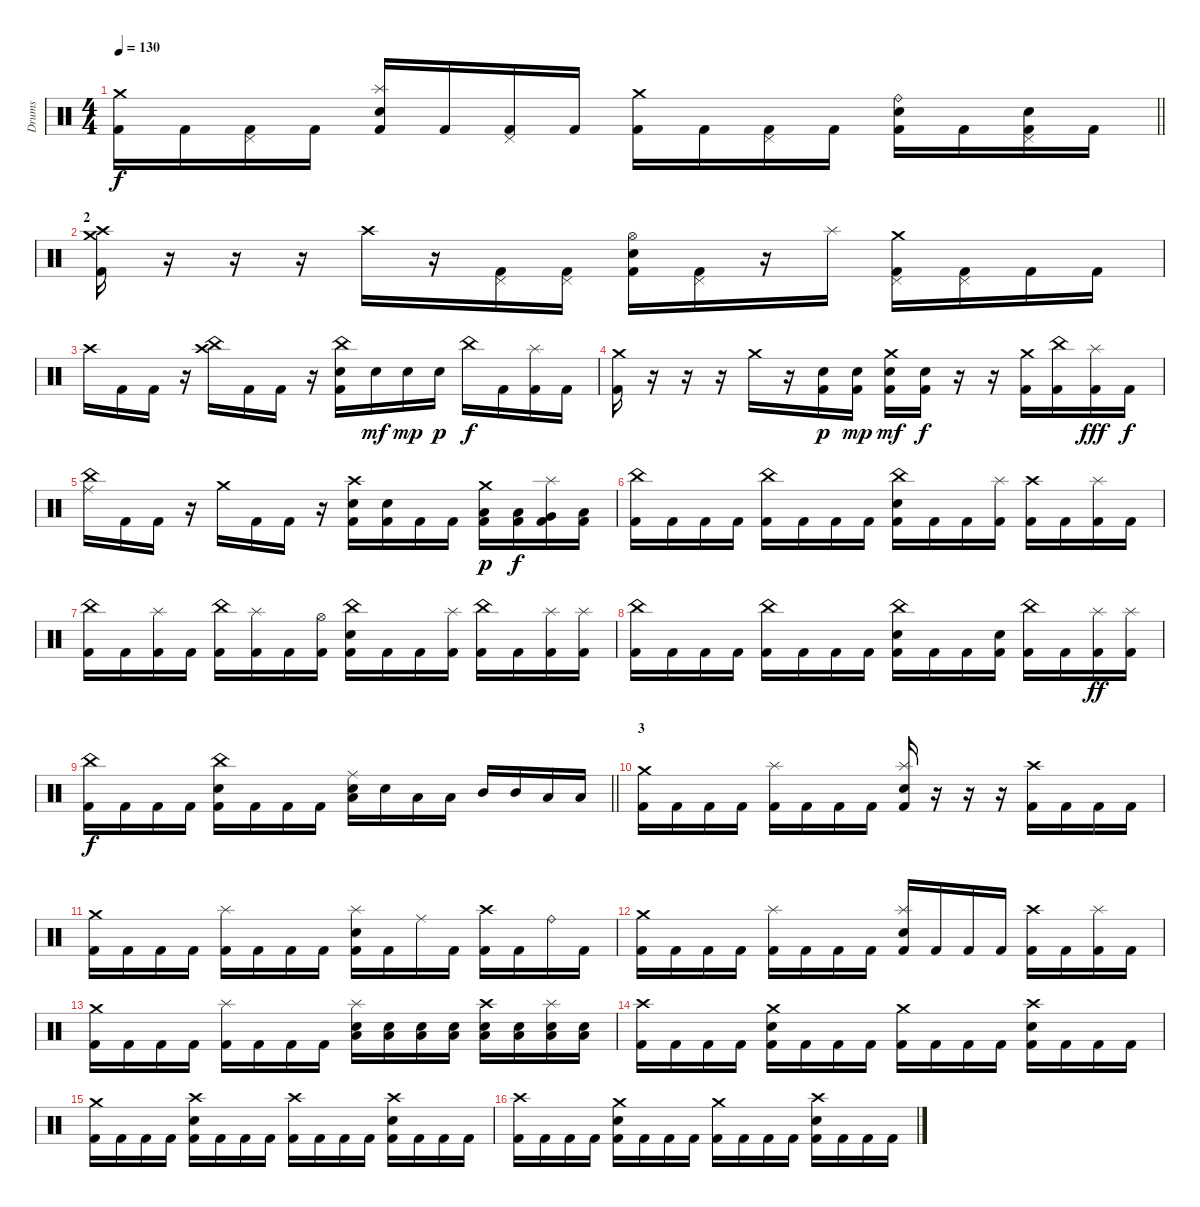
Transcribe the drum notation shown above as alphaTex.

\track ("Drums" "Drums") {instrument percussion}
\staff {score}
\articulation defaults
\ts (4 4)
\tempo 130
\clef neutral
\barLineRight lightlight
\ks c
("Crash medium (hit)" "Kick (hit) 2").16{dy f} "Kick (hit) 2".16 ("Pedal Hi-Hat (hit)" "Kick (hit) 2").16 "Kick (hit) 2".16 ("Splash (hit)" "Electric Snare (hit)" "Kick (hit) 2").16 "Kick (hit) 2".16 ("Pedal Hi-Hat (hit)" "Kick (hit) 2").16 "Kick (hit) 2".16 ("Crash medium (hit)" "Kick (hit) 2").16 "Kick (hit) 2".16 ("Pedal Hi-Hat (hit)" "Kick (hit) 2").16 "Kick (hit) 2".16 ("Ride (bell)" "Electric Snare (hit)" "Kick (hit) 2").16 "Kick (hit) 2".16 ("Pedal Hi-Hat (hit)" "Electric Snare (hit)" "Kick (hit) 2").16 "Kick (hit) 2".16 |
\section ("" "2")
("Crash medium (hit)" "Crash high (hit)" "Kick (hit) 2").16 r.16 r.16 r.16 "Crash high (hit)".16 r.16 ("Pedal Hi-Hat (hit)" "Kick (hit) 2").16 ("Pedal Hi-Hat (hit)" "Kick (hit) 2").16 ("Hi-Hat (open)" "Electric Snare (hit)" "Kick (hit) 2").16 ("Pedal Hi-Hat (hit)" "Kick (hit) 2").16 r.16 "Splash (hit)".16 ("Crash medium (hit)" "Pedal Hi-Hat (hit)" "Kick (hit) 2").16 ("Pedal Hi-Hat (hit)" "Kick (hit) 2").16 "Kick (hit) 2".16 "Kick (hit) 2".16 |
"Crash high (hit)".16 "Kick (hit) 2".16 "Kick (hit) 2".16 r.16 ("China (hit)" "Crash high (hit)").16 "Kick (hit) 2".16 "Kick (hit) 2".16 r.16 ("China (hit)" "Electric Snare (hit)" "Kick (hit) 2").16 "Electric Snare (hit)".16{dy mf} "Electric Snare (hit)".16{dy mp} "Electric Snare (hit)".16{dy p} "China (hit)".16{dy f} "Kick (hit) 2".16 ("Splash (hit)" "Kick (hit) 2").16 "Kick (hit) 2".16 |
("Crash medium (hit)" "Kick (hit) 2").16 r.16 r.16 r.16 "Crash medium (hit)".16 r.16 ("Electric Snare (hit)" "Kick (hit) 2").16{dy p} ("Electric Snare (hit)" "Kick (hit) 2").16{dy mp} ("Crash medium (hit)" "Electric Snare (hit)" "Kick (hit) 2").16{dy mf} ("Electric Snare (hit)" "Kick (hit) 2").16{dy f} r.16 r.16 ("Crash medium (hit)" "Kick (hit) 2").16 ("China (hit)" "Kick (hit) 2").16 ("Splash (hit)" "Kick (hit) 2").16{dy fff} "Kick (hit) 2".16{dy f} |
("China (hit)" "Ride (middle)").16 "Kick (hit) 2".16 "Kick (hit) 2".16 r.16 "Crash medium (hit)".16 "Kick (hit) 2".16 "Kick (hit) 2".16 r.16 ("Crash high (hit)" "Electric Snare (hit)" "Kick (hit) 2").16 ("Electric Snare (hit)" "Kick (hit) 2").16 "Kick (hit) 2".16 "Kick (hit) 2".16 ("Crash medium (hit)" "Low Tom (hit)" "Kick (hit) 2").16{dy p} ("Low Tom (hit)" "Kick (hit) 2").16{dy f} ("Splash (hit)" "Very Low Tom (hit)" "Kick (hit) 2").16 ("Low Floor Tom (hit)" "Kick (hit) 2").16 |
("China (hit)" "Kick (hit) 2").16 "Kick (hit) 2".16 "Kick (hit) 2".16 "Kick (hit) 2".16 ("China (hit)" "Kick (hit) 2").16 "Kick (hit) 2".16 "Kick (hit) 2".16 "Kick (hit) 2".16 ("China (hit)" "Snare (hit) 2" "Kick (hit) 2").16 "Kick (hit) 2".16 "Kick (hit) 2".16 ("Splash (hit)" "Kick (hit) 2").16 ("Crash high (hit)" "Kick (hit) 2").16 "Kick (hit) 2".16 ("Splash (hit)" "Kick (hit) 2").16 "Kick (hit) 2".16 |
("China (hit)" "Kick (hit) 2").16 "Kick (hit) 2".16 ("Splash (hit)" "Kick (hit) 2").16 "Kick (hit) 2".16 ("China (hit)" "Kick (hit) 2").16 ("Splash (hit)" "Kick (hit) 2").16 "Kick (hit) 2".16 ("Hi-Hat (open)" "Kick (hit) 2").16 ("China (hit)" "Electric Snare (hit)" "Kick (hit) 2").16 "Kick (hit) 2".16 "Kick (hit) 2".16 ("Splash (hit)" "Kick (hit) 2").16 ("China (hit)" "Kick (hit) 2").16 "Kick (hit) 2".16 ("Splash (hit)" "Kick (hit) 2").16 ("Splash (hit)" "Kick (hit) 2").16 |
("China (hit)" "Kick (hit) 2").16 "Kick (hit) 2".16 "Kick (hit) 2".16 "Kick (hit) 2".16 ("China (hit)" "Kick (hit) 2").16 "Kick (hit) 2".16 "Kick (hit) 2".16 "Kick (hit) 2".16 ("China (hit)" "Electric Snare (hit)" "Kick (hit) 2").16 "Kick (hit) 2".16 "Kick (hit) 2".16 ("Electric Snare (hit)" "Kick (hit) 2").16 ("China (hit)" "Kick (hit) 2").16 "Kick (hit) 2".16 ("Splash (hit)" "Kick (hit) 2").16{dy ff} ("Splash (hit)" "Kick (hit) 2").16 |
\barLineRight lightlight
("China (hit)" "Kick (hit) 2").16{dy f} "Kick (hit) 2".16 "Kick (hit) 2".16 "Kick (hit) 2".16 ("China (hit)" "Electric Snare (hit)" "Kick (hit) 2").16 "Kick (hit) 2".16 "Kick (hit) 2".16 "Kick (hit) 2".16 ("Ride (middle)" "Low Tom (hit)" "Electric Snare (hit)").16 "Electric Snare (hit)".16 "Low Tom (hit)".16 "Low Tom (hit)".16 "Mid Tom (hit)".16 "Mid Tom (hit)".16 "Low Floor Tom (hit)".16 "Low Floor Tom (hit)".16 |
\section ("" "3")
("Crash medium (hit)" "Kick (hit) 2").16 "Kick (hit) 2".16 "Kick (hit) 2".16 "Kick (hit) 2".16 ("Splash (hit)" "Kick (hit) 2").16 "Kick (hit) 2".16 "Kick (hit) 2".16 "Kick (hit) 2".16 ("Splash (hit)" "Electric Snare (hit)" "Kick (hit) 2").16 r.16 r.16 r.16 ("Crash high (hit)" "Kick (hit) 2").16 "Kick (hit) 2".16 "Kick (hit) 2".16 "Kick (hit) 2".16 |
("Crash medium (hit)" "Kick (hit) 2").16 "Kick (hit) 2".16 "Kick (hit) 2".16 "Kick (hit) 2".16 ("Splash (hit)" "Kick (hit) 2").16 "Kick (hit) 2".16 "Kick (hit) 2".16 "Kick (hit) 2".16 ("Splash (hit)" "Electric Snare (hit)" "Kick (hit) 2").16 "Kick (hit) 2".16 "Ride (middle)".16 "Kick (hit) 2".16 ("Crash high (hit)" "Kick (hit) 2").16 "Kick (hit) 2".16 "Ride (bell)".16 "Kick (hit) 2".16 |
("Crash medium (hit)" "Kick (hit) 2").16 "Kick (hit) 2".16 "Kick (hit) 2".16 "Kick (hit) 2".16 ("Splash (hit)" "Kick (hit) 2").16 "Kick (hit) 2".16 "Kick (hit) 2".16 "Kick (hit) 2".16 ("Splash (hit)" "Electric Snare (hit)" "Kick (hit) 2").16 "Kick (hit) 2".16 "Kick (hit) 2".16 "Kick (hit) 2".16 ("Crash high (hit)" "Kick (hit) 2").16 "Kick (hit) 2".16 ("Splash (hit)" "Kick (hit) 2").16 "Kick (hit) 2".16 |
("Crash medium (hit)" "Kick (hit) 2").16 "Kick (hit) 2".16 "Kick (hit) 2".16 "Kick (hit) 2".16 ("Splash (hit)" "Kick (hit) 2").16 "Kick (hit) 2".16 "Kick (hit) 2".16 "Kick (hit) 2".16 ("Splash (hit)" "Low Floor Tom (hit)" "Electric Snare (hit)").16 ("Low Floor Tom (hit)" "Electric Snare (hit)").16 ("Low Floor Tom (hit)" "Electric Snare (hit)").16 ("Low Floor Tom (hit)" "Electric Snare (hit)").16 ("Crash high (hit)" "Low Floor Tom (hit)" "Electric Snare (hit)").16 ("Low Floor Tom (hit)" "Electric Snare (hit)").16 ("Splash (hit)" "Low Floor Tom (hit)" "Electric Snare (hit)").16 ("Low Floor Tom (hit)" "Electric Snare (hit)").16 |
("Crash high (hit)" "Kick (hit) 2").16 "Kick (hit) 2".16 "Kick (hit) 2".16 "Kick (hit) 2".16 ("Crash medium (hit)" "Electric Snare (hit)" "Kick (hit) 2").16 "Kick (hit) 2".16 "Kick (hit) 2".16 "Kick (hit) 2".16 ("Crash medium (hit)" "Kick (hit) 2").16 "Kick (hit) 2".16 "Kick (hit) 2".16 "Kick (hit) 2".16 ("Crash high (hit)" "Electric Snare (hit)" "Kick (hit) 2").16 "Kick (hit) 2".16 "Kick (hit) 2".16 "Kick (hit) 2".16 |
("Crash medium (hit)" "Kick (hit) 2").16 "Kick (hit) 2".16 "Kick (hit) 2".16 "Kick (hit) 2".16 ("Crash high (hit)" "Electric Snare (hit)" "Kick (hit) 2").16 "Kick (hit) 2".16 "Kick (hit) 2".16 "Kick (hit) 2".16 ("Crash high (hit)" "Kick (hit) 2").16 "Kick (hit) 2".16 "Kick (hit) 2".16 "Kick (hit) 2".16 ("Crash high (hit)" "Electric Snare (hit)" "Kick (hit) 2").16 "Kick (hit) 2".16 "Kick (hit) 2".16 "Kick (hit) 2".16 |
("Crash high (hit)" "Kick (hit) 2").16 "Kick (hit) 2".16 "Kick (hit) 2".16 "Kick (hit) 2".16 ("Crash medium (hit)" "Electric Snare (hit)" "Kick (hit) 2").16 "Kick (hit) 2".16 "Kick (hit) 2".16 "Kick (hit) 2".16 ("Crash medium (hit)" "Kick (hit) 2").16 "Kick (hit) 2".16 "Kick (hit) 2".16 "Kick (hit) 2".16 ("Crash high (hit)" "Electric Snare (hit)" "Kick (hit) 2").16 "Kick (hit) 2".16 "Kick (hit) 2".16 "Kick (hit) 2".16
